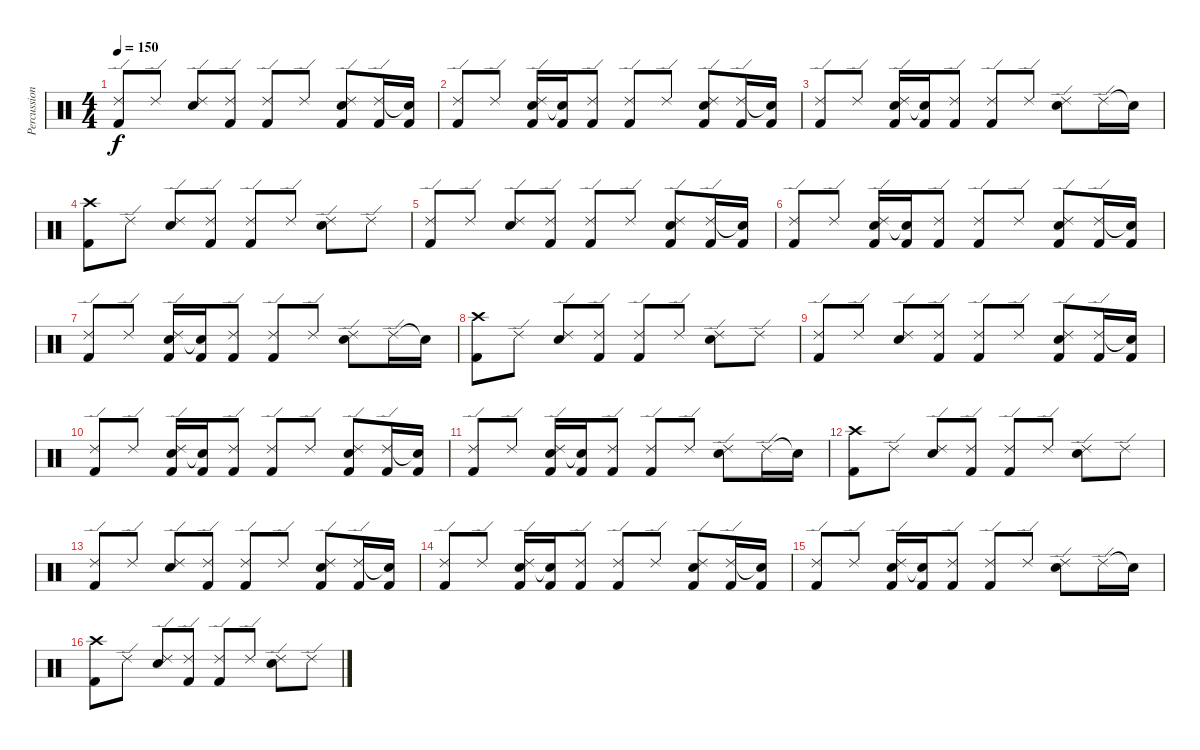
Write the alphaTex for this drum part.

\track ("Percussion" "Percussion") {instrument percussion}
\staff {score}
\articulation defaults
\ts (4 4)
\tempo 150
\clef neutral
\ks c
("Ride (edge) 2" "Kick (hit) 2").8{dy f} "Ride (edge) 2".8 ("Ride (edge) 2" "Electric Snare (hit)").8 ("Ride (edge) 2" "Kick (hit) 2").8 ("Ride (edge) 2" "Kick (hit) 2").8 "Ride (edge) 2".8 ("Electric Snare (hit)" "Ride (edge) 2" "Kick (hit) 2").8 ("Ride (edge) 2" "Kick (hit) 2").16 ("Snare (hit)"{t} "Kick (hit) 2").16 |
("Ride (edge) 2" "Kick (hit) 2").8 "Ride (edge) 2".8 ("Electric Snare (hit)" "Ride (edge) 2" "Kick (hit) 2").16 ("Snare (hit)"{t} "Kick (hit) 2").16 ("Ride (edge) 2" "Kick (hit) 2").8 ("Ride (edge) 2" "Kick (hit) 2").8 "Ride (edge) 2".8 ("Electric Snare (hit)" "Ride (edge) 2" "Kick (hit) 2").8 ("Ride (edge) 2" "Kick (hit) 2").16 ("Snare (hit)"{t} "Kick (hit) 2").16 |
("Ride (edge) 2" "Kick (hit) 2").8 "Ride (edge) 2".8 ("Electric Snare (hit)" "Ride (edge) 2" "Kick (hit) 2").16 ("Snare (hit)"{t} "Kick (hit) 2").16 ("Ride (edge) 2" "Kick (hit) 2").8 ("Ride (edge) 2" "Kick (hit) 2").8 "Ride (edge) 2".8 ("Electric Snare (hit)" "Ride (edge) 2").8 "Ride (edge) 2".16 "Snare (hit)"{t}.16 |
("Crash high (hit)" "Kick (hit) 2").8 "Ride (edge) 2".8 ("Ride (edge) 2" "Electric Snare (hit)").8 ("Ride (edge) 2" "Kick (hit) 2").8 ("Ride (edge) 2" "Kick (hit) 2").8 "Ride (edge) 2".8 ("Ride (edge) 2" "Electric Snare (hit)").8 "Ride (edge) 2".8 |
("Ride (edge) 2" "Kick (hit) 2").8 "Ride (edge) 2".8 ("Ride (edge) 2" "Electric Snare (hit)").8 ("Ride (edge) 2" "Kick (hit) 2").8 ("Ride (edge) 2" "Kick (hit) 2").8 "Ride (edge) 2".8 ("Electric Snare (hit)" "Ride (edge) 2" "Kick (hit) 2").8 ("Ride (edge) 2" "Kick (hit) 2").16 ("Snare (hit)"{t} "Kick (hit) 2").16 |
("Ride (edge) 2" "Kick (hit) 2").8 "Ride (edge) 2".8 ("Electric Snare (hit)" "Ride (edge) 2" "Kick (hit) 2").16 ("Snare (hit)"{t} "Kick (hit) 2").16 ("Ride (edge) 2" "Kick (hit) 2").8 ("Ride (edge) 2" "Kick (hit) 2").8 "Ride (edge) 2".8 ("Electric Snare (hit)" "Ride (edge) 2" "Kick (hit) 2").8 ("Ride (edge) 2" "Kick (hit) 2").16 ("Snare (hit)"{t} "Kick (hit) 2").16 |
("Ride (edge) 2" "Kick (hit) 2").8 "Ride (edge) 2".8 ("Electric Snare (hit)" "Ride (edge) 2" "Kick (hit) 2").16 ("Snare (hit)"{t} "Kick (hit) 2").16 ("Ride (edge) 2" "Kick (hit) 2").8 ("Ride (edge) 2" "Kick (hit) 2").8 "Ride (edge) 2".8 ("Electric Snare (hit)" "Ride (edge) 2").8 "Ride (edge) 2".16 "Snare (hit)"{t}.16 |
("Crash high (hit)" "Kick (hit) 2").8 "Ride (edge) 2".8 ("Ride (edge) 2" "Electric Snare (hit)").8 ("Ride (edge) 2" "Kick (hit) 2").8 ("Ride (edge) 2" "Kick (hit) 2").8 "Ride (edge) 2".8 ("Ride (edge) 2" "Electric Snare (hit)").8 "Ride (edge) 2".8 |
("Ride (edge) 2" "Kick (hit) 2").8 "Ride (edge) 2".8 ("Ride (edge) 2" "Electric Snare (hit)").8 ("Ride (edge) 2" "Kick (hit) 2").8 ("Ride (edge) 2" "Kick (hit) 2").8 "Ride (edge) 2".8 ("Electric Snare (hit)" "Ride (edge) 2" "Kick (hit) 2").8 ("Ride (edge) 2" "Kick (hit) 2").16 ("Snare (hit)"{t} "Kick (hit) 2").16 |
("Ride (edge) 2" "Kick (hit) 2").8 "Ride (edge) 2".8 ("Electric Snare (hit)" "Ride (edge) 2" "Kick (hit) 2").16 ("Snare (hit)"{t} "Kick (hit) 2").16 ("Ride (edge) 2" "Kick (hit) 2").8 ("Ride (edge) 2" "Kick (hit) 2").8 "Ride (edge) 2".8 ("Electric Snare (hit)" "Ride (edge) 2" "Kick (hit) 2").8 ("Ride (edge) 2" "Kick (hit) 2").16 ("Snare (hit)"{t} "Kick (hit) 2").16 |
("Ride (edge) 2" "Kick (hit) 2").8 "Ride (edge) 2".8 ("Electric Snare (hit)" "Ride (edge) 2" "Kick (hit) 2").16 ("Snare (hit)"{t} "Kick (hit) 2").16 ("Ride (edge) 2" "Kick (hit) 2").8 ("Ride (edge) 2" "Kick (hit) 2").8 "Ride (edge) 2".8 ("Electric Snare (hit)" "Ride (edge) 2").8 "Ride (edge) 2".16 "Snare (hit)"{t}.16 |
("Crash high (hit)" "Kick (hit) 2").8 "Ride (edge) 2".8 ("Ride (edge) 2" "Electric Snare (hit)").8 ("Ride (edge) 2" "Kick (hit) 2").8 ("Ride (edge) 2" "Kick (hit) 2").8 "Ride (edge) 2".8 ("Ride (edge) 2" "Electric Snare (hit)").8 "Ride (edge) 2".8 |
("Ride (edge) 2" "Kick (hit) 2").8 "Ride (edge) 2".8 ("Ride (edge) 2" "Electric Snare (hit)").8 ("Ride (edge) 2" "Kick (hit) 2").8 ("Ride (edge) 2" "Kick (hit) 2").8 "Ride (edge) 2".8 ("Electric Snare (hit)" "Ride (edge) 2" "Kick (hit) 2").8 ("Ride (edge) 2" "Kick (hit) 2").16 ("Snare (hit)"{t} "Kick (hit) 2").16 |
("Ride (edge) 2" "Kick (hit) 2").8 "Ride (edge) 2".8 ("Electric Snare (hit)" "Ride (edge) 2" "Kick (hit) 2").16 ("Snare (hit)"{t} "Kick (hit) 2").16 ("Ride (edge) 2" "Kick (hit) 2").8 ("Ride (edge) 2" "Kick (hit) 2").8 "Ride (edge) 2".8 ("Electric Snare (hit)" "Ride (edge) 2" "Kick (hit) 2").8 ("Ride (edge) 2" "Kick (hit) 2").16 ("Snare (hit)"{t} "Kick (hit) 2").16 |
("Ride (edge) 2" "Kick (hit) 2").8 "Ride (edge) 2".8 ("Electric Snare (hit)" "Ride (edge) 2" "Kick (hit) 2").16 ("Snare (hit)"{t} "Kick (hit) 2").16 ("Ride (edge) 2" "Kick (hit) 2").8 ("Ride (edge) 2" "Kick (hit) 2").8 "Ride (edge) 2".8 ("Electric Snare (hit)" "Ride (edge) 2").8 "Ride (edge) 2".16 "Snare (hit)"{t}.16 |
("Crash high (hit)" "Kick (hit) 2").8 "Ride (edge) 2".8 ("Ride (edge) 2" "Electric Snare (hit)").8 ("Ride (edge) 2" "Kick (hit) 2").8 ("Ride (edge) 2" "Kick (hit) 2").8 "Ride (edge) 2".8 ("Ride (edge) 2" "Electric Snare (hit)").8 "Ride (edge) 2".8
